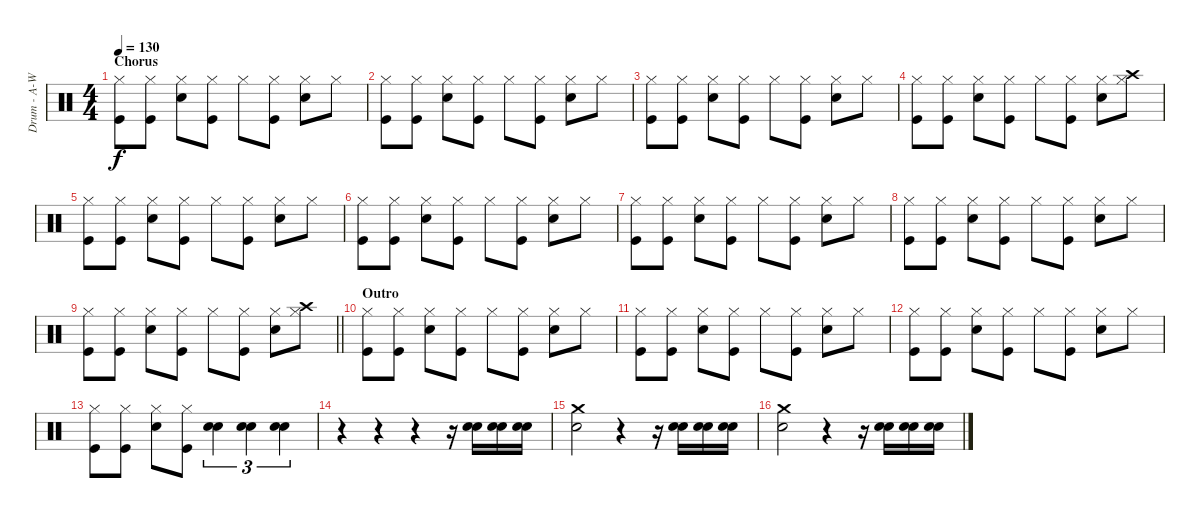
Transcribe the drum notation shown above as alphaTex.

\track ("Drum - A-Word" "Drum - A-W") {instrument percussion}
\staff {score}
\articulation defaults
\ts (4 4)
\section ("" "Chorus")
\tempo 130
\clef neutral
\ks c
("Hi-Hat (closed)" "Kick (hit)").8{dy f} ("Hi-Hat (closed)" "Kick (hit)").8 ("Hi-Hat (closed)" "Snare (hit) 2").8 ("Hi-Hat (closed)" "Kick (hit)").8 "Hi-Hat (closed)".8 ("Hi-Hat (closed)" "Kick (hit)").8 ("Hi-Hat (closed)" "Snare (hit) 2").8 "Hi-Hat (closed)".8 |
("Hi-Hat (closed)" "Kick (hit)").8 ("Hi-Hat (closed)" "Kick (hit)").8 ("Hi-Hat (closed)" "Snare (hit) 2").8 ("Hi-Hat (closed)" "Kick (hit)").8 "Hi-Hat (closed)".8 ("Hi-Hat (closed)" "Kick (hit)").8 ("Hi-Hat (closed)" "Snare (hit) 2").8 "Hi-Hat (closed)".8 |
("Hi-Hat (closed)" "Kick (hit)").8 ("Hi-Hat (closed)" "Kick (hit)").8 ("Hi-Hat (closed)" "Snare (hit) 2").8 ("Hi-Hat (closed)" "Kick (hit)").8 "Hi-Hat (closed)".8 ("Hi-Hat (closed)" "Kick (hit)").8 ("Hi-Hat (closed)" "Snare (hit) 2").8 "Hi-Hat (closed)".8 |
("Hi-Hat (closed)" "Kick (hit)").8 ("Hi-Hat (closed)" "Kick (hit)").8 ("Hi-Hat (closed)" "Snare (hit) 2").8 ("Hi-Hat (closed)" "Kick (hit)").8 "Hi-Hat (closed)".8 ("Hi-Hat (closed)" "Kick (hit)").8 ("Hi-Hat (closed)" "Snare (hit) 2").8 ("Hi-Hat (closed)" "Crash high (hit)").8 |
("Hi-Hat (closed)" "Kick (hit)").8 ("Hi-Hat (closed)" "Kick (hit)").8 ("Hi-Hat (closed)" "Snare (hit) 2").8 ("Hi-Hat (closed)" "Kick (hit)").8 "Hi-Hat (closed)".8 ("Hi-Hat (closed)" "Kick (hit)").8 ("Hi-Hat (closed)" "Snare (hit) 2").8 "Hi-Hat (closed)".8 |
("Hi-Hat (closed)" "Kick (hit)").8 ("Hi-Hat (closed)" "Kick (hit)").8 ("Hi-Hat (closed)" "Snare (hit) 2").8 ("Hi-Hat (closed)" "Kick (hit)").8 "Hi-Hat (closed)".8 ("Hi-Hat (closed)" "Kick (hit)").8 ("Hi-Hat (closed)" "Snare (hit) 2").8 "Hi-Hat (closed)".8 |
("Hi-Hat (closed)" "Kick (hit)").8 ("Hi-Hat (closed)" "Kick (hit)").8 ("Hi-Hat (closed)" "Snare (hit) 2").8 ("Hi-Hat (closed)" "Kick (hit)").8 "Hi-Hat (closed)".8 ("Hi-Hat (closed)" "Kick (hit)").8 ("Hi-Hat (closed)" "Snare (hit) 2").8 "Hi-Hat (closed)".8 |
("Hi-Hat (closed)" "Kick (hit)").8 ("Hi-Hat (closed)" "Kick (hit)").8 ("Hi-Hat (closed)" "Snare (hit) 2").8 ("Hi-Hat (closed)" "Kick (hit)").8 "Hi-Hat (closed)".8 ("Hi-Hat (closed)" "Kick (hit)").8 ("Hi-Hat (closed)" "Snare (hit) 2").8 "Hi-Hat (closed)".8 |
\barLineRight lightlight
("Hi-Hat (closed)" "Kick (hit)").8 ("Hi-Hat (closed)" "Kick (hit)").8 ("Hi-Hat (closed)" "Snare (hit) 2").8 ("Hi-Hat (closed)" "Kick (hit)").8 "Hi-Hat (closed)".8 ("Hi-Hat (closed)" "Kick (hit)").8 ("Hi-Hat (closed)" "Snare (hit) 2").8 ("Hi-Hat (closed)" "Crash high (hit)").8 |
\section ("" "Outro")
("Hi-Hat (closed)" "Kick (hit)").8 ("Hi-Hat (closed)" "Kick (hit)").8 ("Hi-Hat (closed)" "Snare (hit) 2").8 ("Hi-Hat (closed)" "Kick (hit)").8 "Hi-Hat (closed)".8 ("Hi-Hat (closed)" "Kick (hit)").8 ("Hi-Hat (closed)" "Snare (hit) 2").8 "Hi-Hat (closed)".8 |
("Hi-Hat (closed)" "Kick (hit)").8 ("Hi-Hat (closed)" "Kick (hit)").8 ("Hi-Hat (closed)" "Snare (hit) 2").8 ("Hi-Hat (closed)" "Kick (hit)").8 "Hi-Hat (closed)".8 ("Hi-Hat (closed)" "Kick (hit)").8 ("Hi-Hat (closed)" "Snare (hit) 2").8 "Hi-Hat (closed)".8 |
("Hi-Hat (closed)" "Kick (hit)").8 ("Hi-Hat (closed)" "Kick (hit)").8 ("Hi-Hat (closed)" "Snare (hit) 2").8 ("Hi-Hat (closed)" "Kick (hit)").8 "Hi-Hat (closed)".8 ("Hi-Hat (closed)" "Kick (hit)").8 ("Hi-Hat (closed)" "Snare (hit) 2").8 "Hi-Hat (closed)".8 |
("Hi-Hat (closed)" "Kick (hit)").8 ("Hi-Hat (closed)" "Kick (hit)").8 ("Hi-Hat (closed)" "Snare (hit) 2").8 ("Hi-Hat (closed)" "Kick (hit)").8 ("Snare (hit) 2" "Snare (hit) 2").4{tu (3 2)} ("Snare (hit) 2" "Snare (hit) 2").4{tu (3 2)} ("Snare (hit) 2" "Snare (hit) 2").4{tu (3 2)} |
r.4 r.4 r.4 r.16 ("Snare (hit) 2" "Snare (hit) 2").16 ("Snare (hit) 2" "Snare (hit) 2").16 ("Snare (hit) 2" "Snare (hit) 2").16 |
("Snare (hit) 2" "Crash medium (hit)").2 r.4 r.16 ("Snare (hit) 2" "Snare (hit) 2").16 ("Snare (hit) 2" "Snare (hit) 2").16 ("Snare (hit) 2" "Snare (hit) 2").16 |
("Snare (hit) 2" "Crash medium (hit)").2 r.4 r.16 ("Snare (hit) 2" "Snare (hit) 2").16 ("Snare (hit) 2" "Snare (hit) 2").16 ("Snare (hit) 2" "Snare (hit) 2").16
